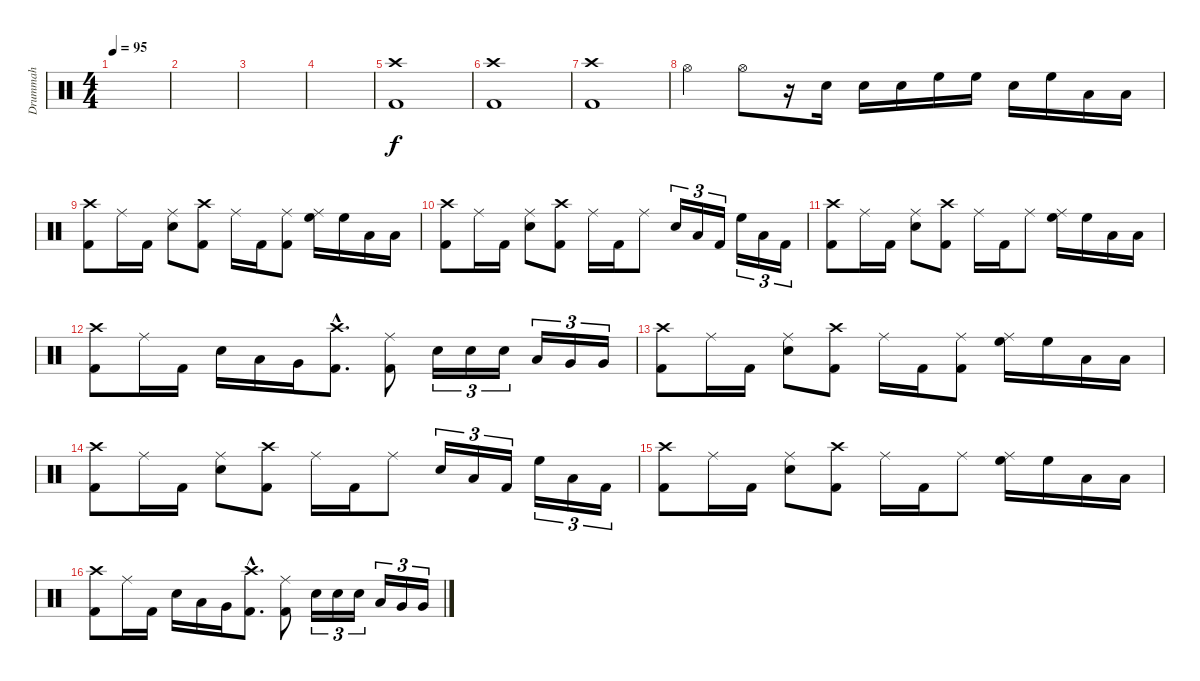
\track ("Drummah" "Drummah") {instrument percussion}
\staff {score}
\articulation defaults
\ts (4 4)
\tempo 95
\clef neutral
\ks c
|
|
|
|
("Crash high (hit)" "Kick (hit) 2").1 |
("Crash high (hit)" "Kick (hit) 2").1 |
("Crash high (hit)" "Kick (hit) 2").1 |
"Hi-Hat (open)".4 "Hi-Hat (open)".8 r.16 "Snare (hit) 2".16 "Snare (hit) 2".16 "Snare (hit) 2".16 "High Floor Tom (hit)".16 "High Floor Tom (hit)".16 "Snare (hit) 2".16 "High Floor Tom (hit)".16 "Low Tom (hit)".16 "Low Tom (hit)".16 |
("Crash high (hit)" "Kick (hit) 2").8 "Ride (middle)".16 "Kick (hit) 2".16 ("Ride (middle)" "Snare (hit) 2").8 ("Crash high (hit)" "Kick (hit) 2").8 "Ride (middle)".16 "Kick (hit) 2".16 ("Ride (middle)" "Kick (hit) 2").8 ("Ride (middle)" "High Floor Tom (hit)").16 "High Floor Tom (hit)".16 "Low Tom (hit)".16 "Low Tom (hit)".16 |
("Crash high (hit)" "Kick (hit) 2").8 "Ride (middle)".16 "Kick (hit) 2".16 ("Ride (middle)" "Snare (hit) 2").8 ("Crash high (hit)" "Kick (hit) 2").8 "Ride (middle)".16 "Kick (hit) 2".16 "Ride (middle)".8 "Snare (hit) 2".16{tu (3 2)} "Low Tom (hit)".16{tu (3 2)} "Kick (hit) 2".16{tu (3 2)} "High Floor Tom (hit)".16{tu (3 2)} "Low Tom (hit)".16{tu (3 2)} "Kick (hit) 2".16{tu (3 2)} |
("Crash high (hit)" "Kick (hit) 2").8 "Ride (middle)".16 "Kick (hit) 2".16 ("Ride (middle)" "Snare (hit) 2").8 ("Crash high (hit)" "Kick (hit) 2").8 "Ride (middle)".16 "Kick (hit) 2".16 "Ride (middle)".8 ("Ride (middle)" "High Floor Tom (hit)").16 "High Floor Tom (hit)".16 "Low Tom (hit)".16 "Low Tom (hit)".16 |
("Crash high (hit)" "Kick (hit) 2").8 "Ride (middle)".16 "Kick (hit) 2".16 "Snare (hit) 2".16 "Low Tom (hit)".16 "Very Low Tom (hit)".16 ("Crash high (hit)"{hac} "Kick (hit) 2"{hac}).8{d} ("Ride (middle)" "Kick (hit) 2").8 "Snare (hit) 2".16{tu (3 2)} "Snare (hit) 2".16{tu (3 2)} "Snare (hit) 2".16{tu (3 2)} "Low Tom (hit)".16{tu (3 2)} "Very Low Tom (hit)".16{tu (3 2)} "Very Low Tom (hit)".16{tu (3 2)} |
("Crash high (hit)" "Kick (hit) 2").8 "Ride (middle)".16 "Kick (hit) 2".16 ("Ride (middle)" "Snare (hit) 2").8 ("Crash high (hit)" "Kick (hit) 2").8 "Ride (middle)".16 "Kick (hit) 2".16 ("Ride (middle)" "Kick (hit) 2").8 ("Ride (middle)" "High Floor Tom (hit)").16 "High Floor Tom (hit)".16 "Low Tom (hit)".16 "Low Tom (hit)".16 |
("Crash high (hit)" "Kick (hit) 2").8 "Ride (middle)".16 "Kick (hit) 2".16 ("Ride (middle)" "Snare (hit) 2").8 ("Crash high (hit)" "Kick (hit) 2").8 "Ride (middle)".16 "Kick (hit) 2".16 "Ride (middle)".8 "Snare (hit) 2".16{tu (3 2)} "Low Tom (hit)".16{tu (3 2)} "Kick (hit) 2".16{tu (3 2)} "High Floor Tom (hit)".16{tu (3 2)} "Low Tom (hit)".16{tu (3 2)} "Kick (hit) 2".16{tu (3 2)} |
("Crash high (hit)" "Kick (hit) 2").8 "Ride (middle)".16 "Kick (hit) 2".16 ("Ride (middle)" "Snare (hit) 2").8 ("Crash high (hit)" "Kick (hit) 2").8 "Ride (middle)".16 "Kick (hit) 2".16 "Ride (middle)".8 ("Ride (middle)" "High Floor Tom (hit)").16 "High Floor Tom (hit)".16 "Low Tom (hit)".16 "Low Tom (hit)".16 |
("Crash high (hit)" "Kick (hit) 2").8 "Ride (middle)".16 "Kick (hit) 2".16 "Snare (hit) 2".16 "Low Tom (hit)".16 "Very Low Tom (hit)".16 ("Crash high (hit)"{hac} "Kick (hit) 2"{hac}).8{d} ("Ride (middle)" "Kick (hit) 2").8 "Snare (hit) 2".16{tu (3 2)} "Snare (hit) 2".16{tu (3 2)} "Snare (hit) 2".16{tu (3 2)} "Low Tom (hit)".16{tu (3 2)} "Very Low Tom (hit)".16{tu (3 2)} "Very Low Tom (hit)".16{tu (3 2)}
